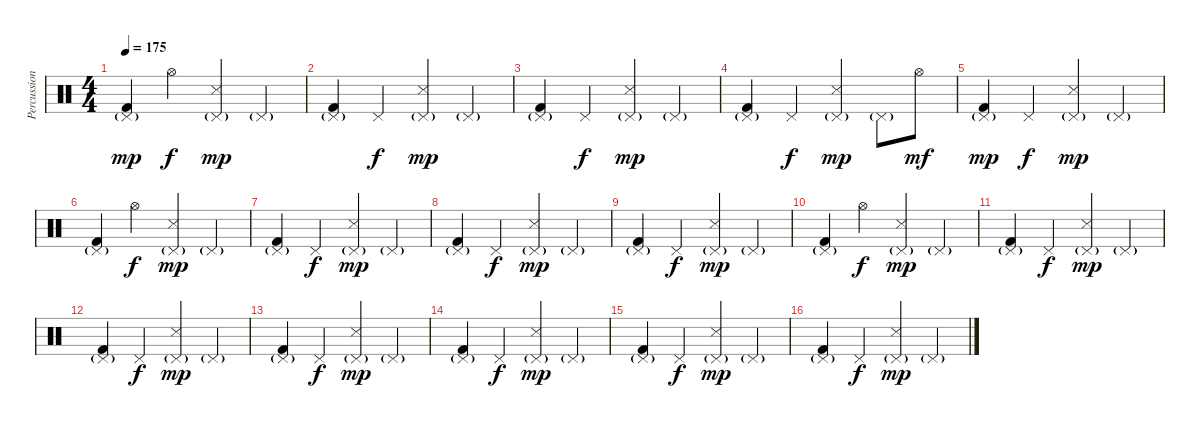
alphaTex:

\track ("Percussion" "Percussion") {instrument percussion}
\staff {score}
\articulation defaults
\ts (4 4)
\tempo 175
\clef neutral
\ks c
("Pedal Hi-Hat (hit)"{g} "Kick (hit) 2").4{dy mp} "Hi-Hat (open)".4{dy f} ("Pedal Hi-Hat (hit)"{g} "Snare (side stick) 3").4{dy mp} "Pedal Hi-Hat (hit)"{g}.4 |
("Pedal Hi-Hat (hit)"{g} "Kick (hit) 2").4 "Pedal Hi-Hat (hit)".4{dy f} ("Pedal Hi-Hat (hit)"{g} "Snare (side stick) 3").4{dy mp} "Pedal Hi-Hat (hit)"{g}.4 |
("Pedal Hi-Hat (hit)"{g} "Kick (hit) 2").4 "Pedal Hi-Hat (hit)".4{dy f} ("Pedal Hi-Hat (hit)"{g} "Snare (side stick) 3").4{dy mp} "Pedal Hi-Hat (hit)"{g}.4 |
("Pedal Hi-Hat (hit)"{g} "Kick (hit) 2").4 "Pedal Hi-Hat (hit)".4{dy f} ("Pedal Hi-Hat (hit)"{g} "Snare (side stick) 3").4{dy mp} "Pedal Hi-Hat (hit)"{g}.8 "Hi-Hat (open)".8{dy mf} |
("Pedal Hi-Hat (hit)"{g} "Kick (hit) 2").4{dy mp} "Pedal Hi-Hat (hit)".4{dy f} ("Pedal Hi-Hat (hit)"{g} "Snare (side stick) 3").4{dy mp} "Pedal Hi-Hat (hit)"{g}.4 |
("Pedal Hi-Hat (hit)"{g} "Kick (hit) 2").4 "Hi-Hat (open)".4{dy f} ("Pedal Hi-Hat (hit)"{g} "Snare (side stick) 3").4{dy mp} "Pedal Hi-Hat (hit)"{g}.4 |
("Pedal Hi-Hat (hit)"{g} "Kick (hit) 2").4 "Pedal Hi-Hat (hit)".4{dy f} ("Pedal Hi-Hat (hit)"{g} "Snare (side stick) 3").4{dy mp} "Pedal Hi-Hat (hit)"{g}.4 |
("Pedal Hi-Hat (hit)"{g} "Kick (hit) 2").4 "Pedal Hi-Hat (hit)".4{dy f} ("Pedal Hi-Hat (hit)"{g} "Snare (side stick) 3").4{dy mp} "Pedal Hi-Hat (hit)"{g}.4 |
("Pedal Hi-Hat (hit)"{g} "Kick (hit) 2").4 "Pedal Hi-Hat (hit)".4{dy f} ("Pedal Hi-Hat (hit)"{g} "Snare (side stick) 3").4{dy mp} "Pedal Hi-Hat (hit)"{g}.4 |
("Pedal Hi-Hat (hit)"{g} "Kick (hit) 2").4 "Hi-Hat (open)".4{dy f} ("Pedal Hi-Hat (hit)"{g} "Snare (side stick) 3").4{dy mp} "Pedal Hi-Hat (hit)"{g}.4 |
("Pedal Hi-Hat (hit)"{g} "Kick (hit) 2").4 "Pedal Hi-Hat (hit)".4{dy f} ("Pedal Hi-Hat (hit)"{g} "Snare (side stick) 3").4{dy mp} "Pedal Hi-Hat (hit)"{g}.4 |
("Pedal Hi-Hat (hit)"{g} "Kick (hit) 2").4 "Pedal Hi-Hat (hit)".4{dy f} ("Pedal Hi-Hat (hit)"{g} "Snare (side stick) 3").4{dy mp} "Pedal Hi-Hat (hit)"{g}.4 |
("Pedal Hi-Hat (hit)"{g} "Kick (hit) 2").4 "Pedal Hi-Hat (hit)".4{dy f} ("Pedal Hi-Hat (hit)"{g} "Snare (side stick) 3").4{dy mp} "Pedal Hi-Hat (hit)"{g}.4 |
("Pedal Hi-Hat (hit)"{g} "Kick (hit) 2").4 "Pedal Hi-Hat (hit)".4{dy f} ("Pedal Hi-Hat (hit)"{g} "Snare (side stick) 3").4{dy mp} "Pedal Hi-Hat (hit)"{g}.4 |
("Pedal Hi-Hat (hit)"{g} "Kick (hit) 2").4 "Pedal Hi-Hat (hit)".4{dy f} ("Pedal Hi-Hat (hit)"{g} "Snare (side stick) 3").4{dy mp} "Pedal Hi-Hat (hit)"{g}.4 |
("Pedal Hi-Hat (hit)"{g} "Kick (hit) 2").4 "Pedal Hi-Hat (hit)".4{dy f} ("Pedal Hi-Hat (hit)"{g} "Snare (side stick) 3").4{dy mp} "Pedal Hi-Hat (hit)"{g}.4
